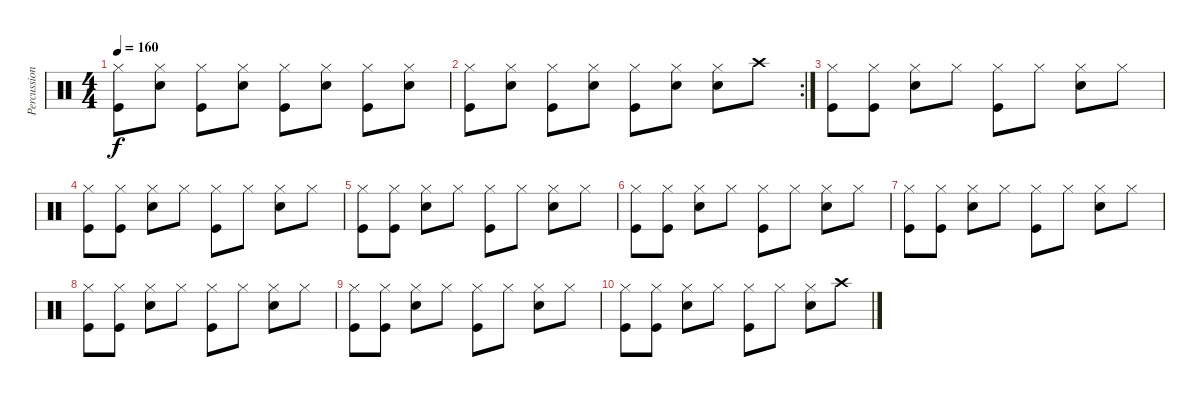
\track ("Percussion" "Percussion") {instrument percussion}
\staff {score}
\articulation defaults
\ts (4 4)
\tempo 160
\clef neutral
\ks c
("Hi-Hat (closed)" "Kick (hit)").8{dy f} ("Hi-Hat (closed)" "Snare (hit) 2").8 ("Hi-Hat (closed)" "Kick (hit)").8 ("Hi-Hat (closed)" "Snare (hit) 2").8 ("Hi-Hat (closed)" "Kick (hit)").8 ("Hi-Hat (closed)" "Snare (hit) 2").8 ("Hi-Hat (closed)" "Kick (hit)").8 ("Hi-Hat (closed)" "Snare (hit) 2").8 |
\rc 2
("Hi-Hat (closed)" "Kick (hit)").8 ("Hi-Hat (closed)" "Snare (hit) 2").8 ("Hi-Hat (closed)" "Kick (hit)").8 ("Hi-Hat (closed)" "Snare (hit) 2").8 ("Hi-Hat (closed)" "Kick (hit)").8 ("Hi-Hat (closed)" "Snare (hit) 2").8 ("Hi-Hat (closed)" "Snare (hit) 2").8 "Crash high (hit)".8 |
("Hi-Hat (closed)" "Kick (hit)").8 ("Hi-Hat (closed)" "Kick (hit)").8 ("Hi-Hat (closed)" "Snare (hit) 2").8 "Hi-Hat (closed)".8 ("Hi-Hat (closed)" "Kick (hit)").8 "Hi-Hat (closed)".8 ("Hi-Hat (closed)" "Snare (hit) 2").8 "Hi-Hat (closed)".8 |
("Hi-Hat (closed)" "Kick (hit)").8 ("Hi-Hat (closed)" "Kick (hit)").8 ("Hi-Hat (closed)" "Snare (hit) 2").8 "Hi-Hat (closed)".8 ("Hi-Hat (closed)" "Kick (hit)").8 "Hi-Hat (closed)".8 ("Hi-Hat (closed)" "Snare (hit) 2").8 "Hi-Hat (closed)".8 |
("Hi-Hat (closed)" "Kick (hit)").8 ("Hi-Hat (closed)" "Kick (hit)").8 ("Hi-Hat (closed)" "Snare (hit) 2").8 "Hi-Hat (closed)".8 ("Hi-Hat (closed)" "Kick (hit)").8 "Hi-Hat (closed)".8 ("Hi-Hat (closed)" "Snare (hit) 2").8 "Hi-Hat (closed)".8 |
("Hi-Hat (closed)" "Kick (hit)").8 ("Hi-Hat (closed)" "Kick (hit)").8 ("Hi-Hat (closed)" "Snare (hit) 2").8 "Hi-Hat (closed)".8 ("Hi-Hat (closed)" "Kick (hit)").8 "Hi-Hat (closed)".8 ("Hi-Hat (closed)" "Snare (hit) 2").8 "Hi-Hat (closed)".8 |
("Hi-Hat (closed)" "Kick (hit)").8 ("Hi-Hat (closed)" "Kick (hit)").8 ("Hi-Hat (closed)" "Snare (hit) 2").8 "Hi-Hat (closed)".8 ("Hi-Hat (closed)" "Kick (hit)").8 "Hi-Hat (closed)".8 ("Hi-Hat (closed)" "Snare (hit) 2").8 "Hi-Hat (closed)".8 |
("Hi-Hat (closed)" "Kick (hit)").8 ("Hi-Hat (closed)" "Kick (hit)").8 ("Hi-Hat (closed)" "Snare (hit) 2").8 "Hi-Hat (closed)".8 ("Hi-Hat (closed)" "Kick (hit)").8 "Hi-Hat (closed)".8 ("Hi-Hat (closed)" "Snare (hit) 2").8 "Hi-Hat (closed)".8 |
("Hi-Hat (closed)" "Kick (hit)").8 ("Hi-Hat (closed)" "Kick (hit)").8 ("Hi-Hat (closed)" "Snare (hit) 2").8 "Hi-Hat (closed)".8 ("Hi-Hat (closed)" "Kick (hit)").8 "Hi-Hat (closed)".8 ("Hi-Hat (closed)" "Snare (hit) 2").8 "Hi-Hat (closed)".8 |
("Hi-Hat (closed)" "Kick (hit)").8 ("Hi-Hat (closed)" "Kick (hit)").8 ("Hi-Hat (closed)" "Snare (hit) 2").8 "Hi-Hat (closed)".8 ("Hi-Hat (closed)" "Kick (hit)").8 "Hi-Hat (closed)".8 ("Hi-Hat (closed)" "Snare (hit) 2").8 "Crash high (hit)".8
